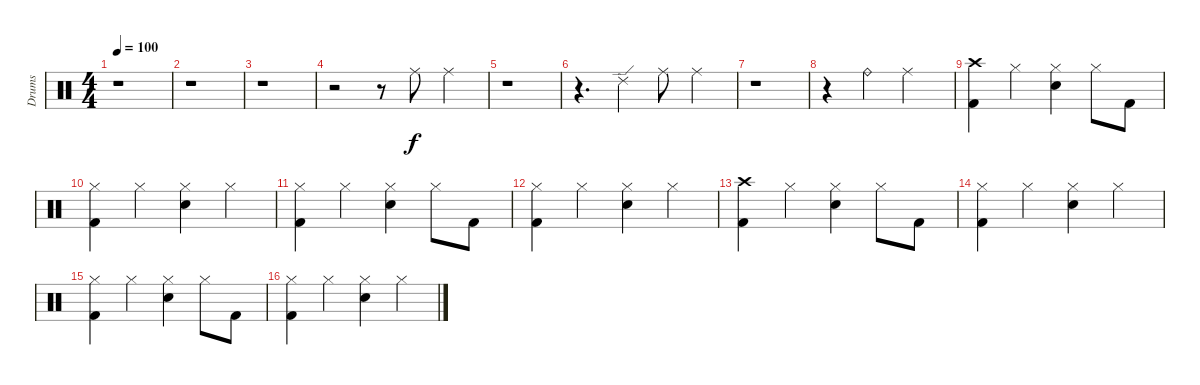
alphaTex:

\track ("Drums" "Drums") {instrument percussion}
\staff {score}
\articulation defaults
\ts (4 4)
\tempo 100
\clef neutral
\ks c
r.1{dy f} |
r.1 |
r.1 |
r.2{volume 5} r.8 "Ride (middle)".8 "Ride (middle)".4 |
r.1 |
r.4{d volume 5} "Ride (edge) 2".4 "Ride (middle)".8 "Ride (middle)".4 |
r.1 |
r.4{volume 7} "Ride (bell)".4 "Ride (middle)".2 |
("Kick (hit) 2" "Crash high (hit)").4{volume 11} "Hi-Hat (closed)".4 ("Electric Snare (hit)" "Hi-Hat (closed)").4 "Hi-Hat (closed)".8 "Kick (hit) 2".8 |
("Kick (hit) 2" "Hi-Hat (closed)").4 "Hi-Hat (closed)".4 ("Electric Snare (hit)" "Hi-Hat (closed)").4 "Hi-Hat (closed)".4 |
("Kick (hit) 2" "Hi-Hat (closed)").4 "Hi-Hat (closed)".4 ("Electric Snare (hit)" "Hi-Hat (closed)").4 "Hi-Hat (closed)".8 "Kick (hit) 2".8 |
("Kick (hit) 2" "Hi-Hat (closed)").4 "Hi-Hat (closed)".4 ("Electric Snare (hit)" "Hi-Hat (closed)").4 "Hi-Hat (closed)".4 |
("Kick (hit) 2" "Crash high (hit)").4 "Hi-Hat (closed)".4 ("Electric Snare (hit)" "Hi-Hat (closed)").4 "Hi-Hat (closed)".8 "Kick (hit) 2".8 |
("Kick (hit) 2" "Hi-Hat (closed)").4 "Hi-Hat (closed)".4 ("Electric Snare (hit)" "Hi-Hat (closed)").4 "Hi-Hat (closed)".4 |
("Kick (hit) 2" "Hi-Hat (closed)").4 "Hi-Hat (closed)".4 ("Electric Snare (hit)" "Hi-Hat (closed)").4 "Hi-Hat (closed)".8 "Kick (hit) 2".8 |
("Kick (hit) 2" "Hi-Hat (closed)").4 "Hi-Hat (closed)".4 ("Electric Snare (hit)" "Hi-Hat (closed)").4 "Hi-Hat (closed)".4
